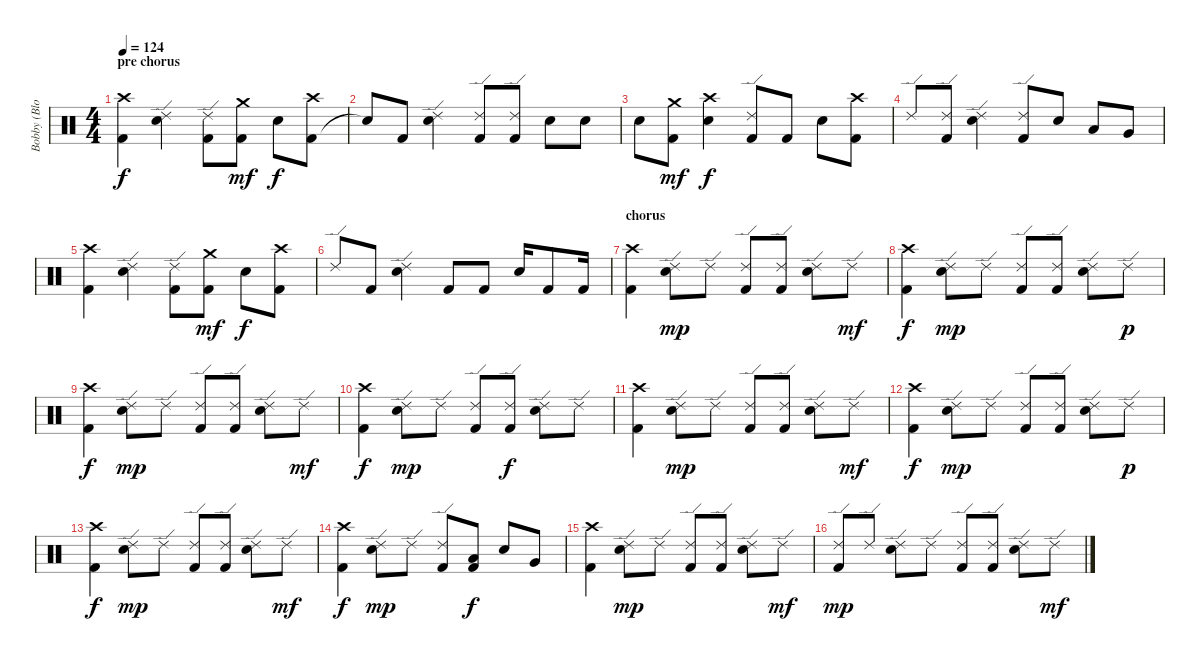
\track ("Bobby (Blotz) Blotzer" "Bobby (Blo") {instrument percussion}
\staff {score}
\articulation defaults
\ts (4 4)
\section ("" "pre chorus")
\tempo 124
\clef neutral
\ks c
("Kick (hit) 2" "Crash high (hit)").4{dy f} ("Ride (edge) 2" "Snare (hit) 2").4 ("Kick (hit) 2" "Ride (edge) 2").8 ("Kick (hit) 2" "Crash medium (hit)").8{dy mf} "Snare (hit) 2".8{dy f} ("Kick (hit) 2" "Crash high (hit)").8 |
"Snare (hit)"{t}.8 "Kick (hit) 2".8 ("Ride (edge) 2" "Snare (hit) 2").4 ("Kick (hit) 2" "Ride (edge) 2").8 ("Kick (hit) 2" "Ride (edge) 2").8 "Snare (hit) 2".8 "Snare (hit) 2".8 |
"Snare (hit) 2".8 ("Kick (hit) 2" "Crash medium (hit)").8{dy mf} ("Crash high (hit)" "Snare (hit) 2").4{dy f} ("Kick (hit) 2" "Ride (edge) 2").8 "Kick (hit) 2".8 "Snare (hit) 2".8 ("Kick (hit) 2" "Crash high (hit)").8 |
"Ride (edge) 2".8 ("Kick (hit) 2" "Ride (edge) 2").8 ("Ride (edge) 2" "Snare (hit) 2").4 ("Kick (hit) 2" "Ride (edge) 2").8 "Snare (hit) 2".8 "Low Tom (hit)".8 "Very Low Tom (hit)".8 |
("Kick (hit) 2" "Crash high (hit)").4 ("Ride (edge) 2" "Snare (hit) 2").4 ("Kick (hit) 2" "Ride (edge) 2").8 ("Kick (hit) 2" "Crash medium (hit)").8{dy mf} "Snare (hit) 2".8{dy f} ("Kick (hit) 2" "Crash high (hit)").8 |
"Ride (edge) 2".8 "Kick (hit) 2".8 ("Ride (edge) 2" "Snare (hit) 2").4 "Kick (hit) 2".8 "Kick (hit) 2".8 "Snare (hit) 2".16 "Kick (hit) 2".8 "Kick (hit) 2".16 |
\section ("" "chorus")
("Kick (hit) 2" "Crash high (hit)").4 ("Ride (edge) 2" "Snare (hit) 2").8{dy mp} "Ride (edge) 2".8 ("Kick (hit) 2" "Ride (edge) 2").8 ("Kick (hit) 2" "Ride (edge) 2").8 ("Ride (edge) 2" "Snare (hit) 2").8 "Ride (edge) 2".8{dy mf} |
("Kick (hit) 2" "Crash high (hit)").4{dy f} ("Ride (edge) 2" "Snare (hit) 2").8{dy mp} "Ride (edge) 2".8 ("Kick (hit) 2" "Ride (edge) 2").8 ("Kick (hit) 2" "Ride (edge) 2").8 ("Ride (edge) 2" "Snare (hit) 2").8 "Ride (edge) 2".8{dy p} |
("Kick (hit) 2" "Crash high (hit)").4{dy f} ("Ride (edge) 2" "Snare (hit) 2").8{dy mp} "Ride (edge) 2".8 ("Kick (hit) 2" "Ride (edge) 2").8 ("Kick (hit) 2" "Ride (edge) 2").8 ("Ride (edge) 2" "Snare (hit) 2").8 "Ride (edge) 2".8{dy mf} |
("Kick (hit) 2" "Crash high (hit)").4{dy f} ("Ride (edge) 2" "Snare (hit) 2").8{dy mp} "Ride (edge) 2".8 ("Kick (hit) 2" "Ride (edge) 2").8 ("Kick (hit) 2" "Ride (edge) 2").8{dy f} ("Ride (edge) 2" "Snare (hit) 2").8 "Ride (edge) 2".8 |
("Kick (hit) 2" "Crash high (hit)").4 ("Ride (edge) 2" "Snare (hit) 2").8{dy mp} "Ride (edge) 2".8 ("Kick (hit) 2" "Ride (edge) 2").8 ("Kick (hit) 2" "Ride (edge) 2").8 ("Ride (edge) 2" "Snare (hit) 2").8 "Ride (edge) 2".8{dy mf} |
("Kick (hit) 2" "Crash high (hit)").4{dy f} ("Ride (edge) 2" "Snare (hit) 2").8{dy mp} "Ride (edge) 2".8 ("Kick (hit) 2" "Ride (edge) 2").8 ("Kick (hit) 2" "Ride (edge) 2").8 ("Ride (edge) 2" "Snare (hit) 2").8 "Ride (edge) 2".8{dy p} |
("Kick (hit) 2" "Crash high (hit)").4{dy f} ("Ride (edge) 2" "Snare (hit) 2").8{dy mp} "Ride (edge) 2".8 ("Kick (hit) 2" "Ride (edge) 2").8 ("Kick (hit) 2" "Ride (edge) 2").8 ("Ride (edge) 2" "Snare (hit) 2").8 "Ride (edge) 2".8{dy mf} |
("Kick (hit) 2" "Crash high (hit)").4{dy f} ("Ride (edge) 2" "Snare (hit) 2").8{dy mp} "Ride (edge) 2".8 ("Kick (hit) 2" "Ride (edge) 2").8 ("Kick (hit) 2" "Low Tom (hit)").8{dy f} "Snare (hit) 2".8 "Very Low Tom (hit)".8 |
("Kick (hit) 2" "Crash high (hit)").4 ("Ride (edge) 2" "Snare (hit) 2").8{dy mp} "Ride (edge) 2".8 ("Kick (hit) 2" "Ride (edge) 2").8 ("Kick (hit) 2" "Ride (edge) 2").8 ("Ride (edge) 2" "Snare (hit) 2").8 "Ride (edge) 2".8{dy mf} |
("Kick (hit) 2" "Ride (edge) 2").8{dy mp} "Ride (edge) 2".8 ("Ride (edge) 2" "Snare (hit) 2").8 "Ride (edge) 2".8 ("Kick (hit) 2" "Ride (edge) 2").8 ("Kick (hit) 2" "Ride (edge) 2").8 ("Ride (edge) 2" "Snare (hit) 2").8 "Ride (edge) 2".8{dy mf}
